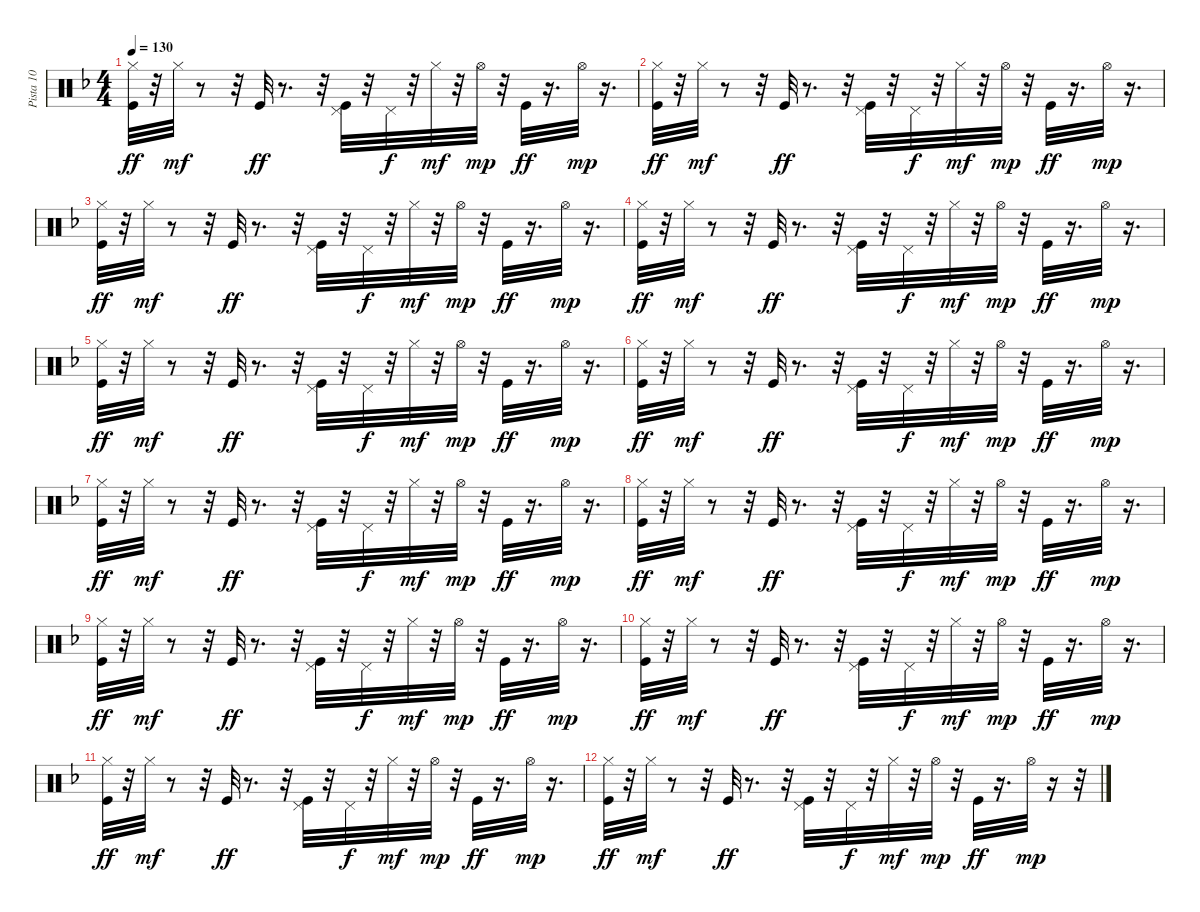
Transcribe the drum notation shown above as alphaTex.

\track ("Pista 10" "Pista 10") {instrument percussion}
\staff {score}
\articulation defaults
\ts (4 4)
\tempo 130
\clef neutral
\ks dminor
("Hi-Hat (closed)" "Kick (hit)").32{dy ff} r.32 "Hi-Hat (closed)".32{dy mf} r.8 r.32 "Kick (hit)".32{dy ff} r.8{d} r.32 ("Pedal Hi-Hat (hit)" "Kick (hit)").32 r.32 "Pedal Hi-Hat (hit)".32{dy f} r.32 "Hi-Hat (closed)".32{dy mf} r.32 "Hi-Hat (open)".32{dy mp} r.32 "Kick (hit)".32{dy ff} r.16{d} "Hi-Hat (open)".32{dy mp} r.16{d} |
("Hi-Hat (closed)" "Kick (hit)").32{dy ff} r.32 "Hi-Hat (closed)".32{dy mf} r.8 r.32 "Kick (hit)".32{dy ff} r.8{d} r.32 ("Pedal Hi-Hat (hit)" "Kick (hit)").32 r.32 "Pedal Hi-Hat (hit)".32{dy f} r.32 "Hi-Hat (closed)".32{dy mf} r.32 "Hi-Hat (open)".32{dy mp} r.32 "Kick (hit)".32{dy ff} r.16{d} "Hi-Hat (open)".32{dy mp} r.16{d} |
("Hi-Hat (closed)" "Kick (hit)").32{dy ff} r.32 "Hi-Hat (closed)".32{dy mf} r.8 r.32 "Kick (hit)".32{dy ff} r.8{d} r.32 ("Pedal Hi-Hat (hit)" "Kick (hit)").32 r.32 "Pedal Hi-Hat (hit)".32{dy f} r.32 "Hi-Hat (closed)".32{dy mf} r.32 "Hi-Hat (open)".32{dy mp} r.32 "Kick (hit)".32{dy ff} r.16{d} "Hi-Hat (open)".32{dy mp} r.16{d} |
("Hi-Hat (closed)" "Kick (hit)").32{dy ff} r.32 "Hi-Hat (closed)".32{dy mf} r.8 r.32 "Kick (hit)".32{dy ff} r.8{d} r.32 ("Pedal Hi-Hat (hit)" "Kick (hit)").32 r.32 "Pedal Hi-Hat (hit)".32{dy f} r.32 "Hi-Hat (closed)".32{dy mf} r.32 "Hi-Hat (open)".32{dy mp} r.32 "Kick (hit)".32{dy ff} r.16{d} "Hi-Hat (open)".32{dy mp} r.16{d} |
("Hi-Hat (closed)" "Kick (hit)").32{dy ff} r.32 "Hi-Hat (closed)".32{dy mf} r.8 r.32 "Kick (hit)".32{dy ff} r.8{d} r.32 ("Pedal Hi-Hat (hit)" "Kick (hit)").32 r.32 "Pedal Hi-Hat (hit)".32{dy f} r.32 "Hi-Hat (closed)".32{dy mf} r.32 "Hi-Hat (open)".32{dy mp} r.32 "Kick (hit)".32{dy ff} r.16{d} "Hi-Hat (open)".32{dy mp} r.16{d} |
("Hi-Hat (closed)" "Kick (hit)").32{dy ff} r.32 "Hi-Hat (closed)".32{dy mf} r.8 r.32 "Kick (hit)".32{dy ff} r.8{d} r.32 ("Pedal Hi-Hat (hit)" "Kick (hit)").32 r.32 "Pedal Hi-Hat (hit)".32{dy f} r.32 "Hi-Hat (closed)".32{dy mf} r.32 "Hi-Hat (open)".32{dy mp} r.32 "Kick (hit)".32{dy ff} r.16{d} "Hi-Hat (open)".32{dy mp} r.16{d} |
("Hi-Hat (closed)" "Kick (hit)").32{dy ff} r.32 "Hi-Hat (closed)".32{dy mf} r.8 r.32 "Kick (hit)".32{dy ff} r.8{d} r.32 ("Pedal Hi-Hat (hit)" "Kick (hit)").32 r.32 "Pedal Hi-Hat (hit)".32{dy f} r.32 "Hi-Hat (closed)".32{dy mf} r.32 "Hi-Hat (open)".32{dy mp} r.32 "Kick (hit)".32{dy ff} r.16{d} "Hi-Hat (open)".32{dy mp} r.16{d} |
("Hi-Hat (closed)" "Kick (hit)").32{dy ff} r.32 "Hi-Hat (closed)".32{dy mf} r.8 r.32 "Kick (hit)".32{dy ff} r.8{d} r.32 ("Pedal Hi-Hat (hit)" "Kick (hit)").32 r.32 "Pedal Hi-Hat (hit)".32{dy f} r.32 "Hi-Hat (closed)".32{dy mf} r.32 "Hi-Hat (open)".32{dy mp} r.32 "Kick (hit)".32{dy ff} r.16{d} "Hi-Hat (open)".32{dy mp} r.16{d} |
("Hi-Hat (closed)" "Kick (hit)").32{dy ff} r.32 "Hi-Hat (closed)".32{dy mf} r.8 r.32 "Kick (hit)".32{dy ff} r.8{d} r.32 ("Pedal Hi-Hat (hit)" "Kick (hit)").32 r.32 "Pedal Hi-Hat (hit)".32{dy f} r.32 "Hi-Hat (closed)".32{dy mf} r.32 "Hi-Hat (open)".32{dy mp} r.32 "Kick (hit)".32{dy ff} r.16{d} "Hi-Hat (open)".32{dy mp} r.16{d} |
("Hi-Hat (closed)" "Kick (hit)").32{dy ff} r.32 "Hi-Hat (closed)".32{dy mf} r.8 r.32 "Kick (hit)".32{dy ff} r.8{d} r.32 ("Pedal Hi-Hat (hit)" "Kick (hit)").32 r.32 "Pedal Hi-Hat (hit)".32{dy f} r.32 "Hi-Hat (closed)".32{dy mf} r.32 "Hi-Hat (open)".32{dy mp} r.32 "Kick (hit)".32{dy ff} r.16{d} "Hi-Hat (open)".32{dy mp} r.16{d} |
("Hi-Hat (closed)" "Kick (hit)").32{dy ff} r.32 "Hi-Hat (closed)".32{dy mf} r.8 r.32 "Kick (hit)".32{dy ff} r.8{d} r.32 ("Pedal Hi-Hat (hit)" "Kick (hit)").32 r.32 "Pedal Hi-Hat (hit)".32{dy f} r.32 "Hi-Hat (closed)".32{dy mf} r.32 "Hi-Hat (open)".32{dy mp} r.32 "Kick (hit)".32{dy ff} r.16{d} "Hi-Hat (open)".32{dy mp} r.16{d} |
("Hi-Hat (closed)" "Kick (hit)").32{dy ff} r.32 "Hi-Hat (closed)".32{dy mf} r.8 r.32 "Kick (hit)".32{dy ff} r.8{d} r.32 ("Pedal Hi-Hat (hit)" "Kick (hit)").32 r.32 "Pedal Hi-Hat (hit)".32{dy f} r.32 "Hi-Hat (closed)".32{dy mf} r.32 "Hi-Hat (open)".32{dy mp} r.32 "Kick (hit)".32{dy ff} r.16{d} "Hi-Hat (open)".32{dy mp} r.16 r.32
